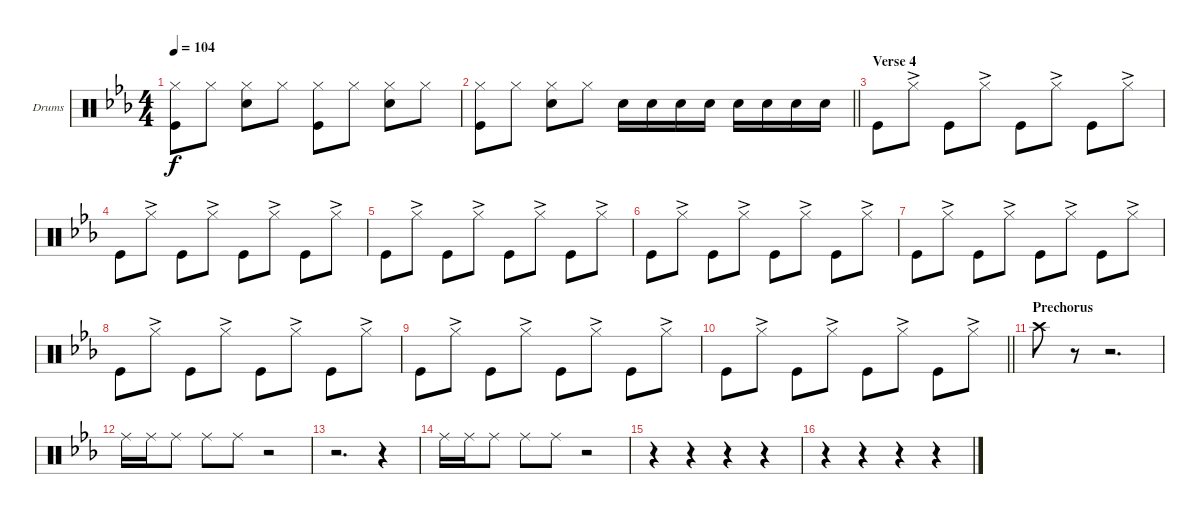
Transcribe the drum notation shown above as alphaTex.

\bracketExtendMode groupsimilarinstruments
\firstSystemTrackNameOrientation horizontal
\otherSystemsTrackNameOrientation horizontal
\track ("Drumkit" "Drums") {instrument percussion}
\staff {score}
\articulation defaults
\ts (4 4)
\tempo 104
\clef neutral
\ks eb
("Hi-Hat (closed)" "Kick (hit)").8{dy f} "Hi-Hat (closed)".8 ("Hi-Hat (closed)" "Snare (hit) 2").8 "Hi-Hat (closed)".8 ("Hi-Hat (closed)" "Kick (hit)").8 "Hi-Hat (closed)".8 ("Hi-Hat (closed)" "Snare (hit) 2").8 "Hi-Hat (closed)".8 |
\barLineRight lightlight
("Hi-Hat (closed)" "Kick (hit)").8 "Hi-Hat (closed)".8 ("Hi-Hat (closed)" "Snare (hit) 2").8 "Hi-Hat (closed)".8 "Snare (hit) 2".16 "Snare (hit) 2".16 "Snare (hit) 2".16 "Snare (hit) 2".16 "Snare (hit) 2".16 "Snare (hit) 2".16 "Snare (hit) 2".16 "Snare (hit) 2".16 |
\section ("" "Verse 4")
"Kick (hit)".8 "Hi-Hat (closed)"{ac}.8 "Kick (hit)".8 "Hi-Hat (closed)"{ac}.8 "Kick (hit)".8 "Hi-Hat (closed)"{ac}.8 "Kick (hit)".8 "Hi-Hat (closed)"{ac}.8 |
"Kick (hit)".8 "Hi-Hat (closed)"{ac}.8 "Kick (hit)".8 "Hi-Hat (closed)"{ac}.8 "Kick (hit)".8 "Hi-Hat (closed)"{ac}.8 "Kick (hit)".8 "Hi-Hat (closed)"{ac}.8 |
"Kick (hit)".8 "Hi-Hat (closed)"{ac}.8 "Kick (hit)".8 "Hi-Hat (closed)"{ac}.8 "Kick (hit)".8 "Hi-Hat (closed)"{ac}.8 "Kick (hit)".8 "Hi-Hat (closed)"{ac}.8 |
"Kick (hit)".8 "Hi-Hat (closed)"{ac}.8 "Kick (hit)".8 "Hi-Hat (closed)"{ac}.8 "Kick (hit)".8 "Hi-Hat (closed)"{ac}.8 "Kick (hit)".8 "Hi-Hat (closed)"{ac}.8 |
"Kick (hit)".8 "Hi-Hat (closed)"{ac}.8 "Kick (hit)".8 "Hi-Hat (closed)"{ac}.8 "Kick (hit)".8 "Hi-Hat (closed)"{ac}.8 "Kick (hit)".8 "Hi-Hat (closed)"{ac}.8 |
"Kick (hit)".8 "Hi-Hat (closed)"{ac}.8 "Kick (hit)".8 "Hi-Hat (closed)"{ac}.8 "Kick (hit)".8 "Hi-Hat (closed)"{ac}.8 "Kick (hit)".8 "Hi-Hat (closed)"{ac}.8 |
"Kick (hit)".8 "Hi-Hat (closed)"{ac}.8 "Kick (hit)".8 "Hi-Hat (closed)"{ac}.8 "Kick (hit)".8 "Hi-Hat (closed)"{ac}.8 "Kick (hit)".8 "Hi-Hat (closed)"{ac}.8 |
\barLineRight lightlight "Kick (hit)".8 "Hi-Hat (closed)"{ac}.8 "Kick (hit)".8 "Hi-Hat (closed)"{ac}.8 "Kick (hit)".8 "Hi-Hat (closed)"{ac}.8 "Kick (hit)".8 "Hi-Hat (closed)"{ac}.8
|
\section ("" "Prechorus")
"Crash high (hit)".8 r.8 r.2{d} |
"Ride (middle)".16 "Ride (middle)".16 "Ride (middle)".8 "Ride (middle)".8 "Ride (middle)".8 r.2 |
r.2{d} r.4 |
"Ride (middle)".16 "Ride (middle)".16 "Ride (middle)".8 "Ride (middle)".8 "Ride (middle)".8 r.2 |
r.4 r.4 r.4 r.4 |
r.4 r.4 r.4 r.4
